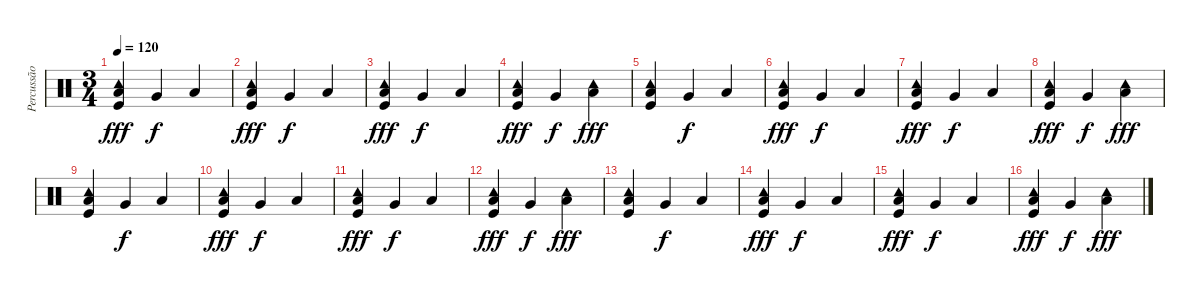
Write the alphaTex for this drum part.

\track ("Percussão" "Percussão") {instrument percussion}
\staff {score}
\articulation defaults
\ts (3 4)
\tempo 120
\clef neutral
\ks c
("Kick (hit)" "Low Tom (hit)" "Tambourine (hit)").4{dy fff} "Very Low Tom (hit)".4{dy f} "Low Floor Tom (hit)".4 |
("Kick (hit)" "Low Tom (hit)" "Tambourine (hit)").4{dy fff} "Very Low Tom (hit)".4{dy f} "Low Floor Tom (hit)".4 |
("Kick (hit)" "Low Tom (hit)" "Tambourine (hit)").4{dy fff} "Very Low Tom (hit)".4{dy f} "Low Floor Tom (hit)".4 |
("Kick (hit)" "Low Tom (hit)" "Tambourine (hit)").4{dy fff} "Very Low Tom (hit)".4{dy f} ("Low Floor Tom (hit)" "Tambourine (hit)").4{dy fff} |
("Kick (hit)" "Low Tom (hit)" "Tambourine (hit)").4 "Very Low Tom (hit)".4{dy f} "Low Floor Tom (hit)".4 |
("Kick (hit)" "Low Tom (hit)" "Tambourine (hit)").4{dy fff} "Very Low Tom (hit)".4{dy f} "Low Floor Tom (hit)".4 |
("Kick (hit)" "Low Tom (hit)" "Tambourine (hit)").4{dy fff} "Very Low Tom (hit)".4{dy f} "Low Floor Tom (hit)".4 |
("Kick (hit)" "Low Tom (hit)" "Tambourine (hit)").4{dy fff} "Very Low Tom (hit)".4{dy f} ("Low Floor Tom (hit)" "Tambourine (hit)").4{dy fff} |
("Kick (hit)" "Low Tom (hit)" "Tambourine (hit)").4 "Very Low Tom (hit)".4{dy f} "Low Floor Tom (hit)".4 |
("Kick (hit)" "Low Tom (hit)" "Tambourine (hit)").4{dy fff} "Very Low Tom (hit)".4{dy f} "Low Floor Tom (hit)".4 |
("Kick (hit)" "Low Tom (hit)" "Tambourine (hit)").4{dy fff} "Very Low Tom (hit)".4{dy f} "Low Floor Tom (hit)".4 |
("Kick (hit)" "Low Tom (hit)" "Tambourine (hit)").4{dy fff} "Very Low Tom (hit)".4{dy f} ("Low Floor Tom (hit)" "Tambourine (hit)").4{dy fff} |
("Kick (hit)" "Low Tom (hit)" "Tambourine (hit)").4 "Very Low Tom (hit)".4{dy f} "Low Floor Tom (hit)".4 |
("Kick (hit)" "Low Tom (hit)" "Tambourine (hit)").4{dy fff} "Very Low Tom (hit)".4{dy f} "Low Floor Tom (hit)".4 |
("Kick (hit)" "Low Tom (hit)" "Tambourine (hit)").4{dy fff} "Very Low Tom (hit)".4{dy f} "Low Floor Tom (hit)".4 |
("Kick (hit)" "Low Tom (hit)" "Tambourine (hit)").4{dy fff} "Very Low Tom (hit)".4{dy f} ("Low Floor Tom (hit)" "Tambourine (hit)").4{dy fff}
